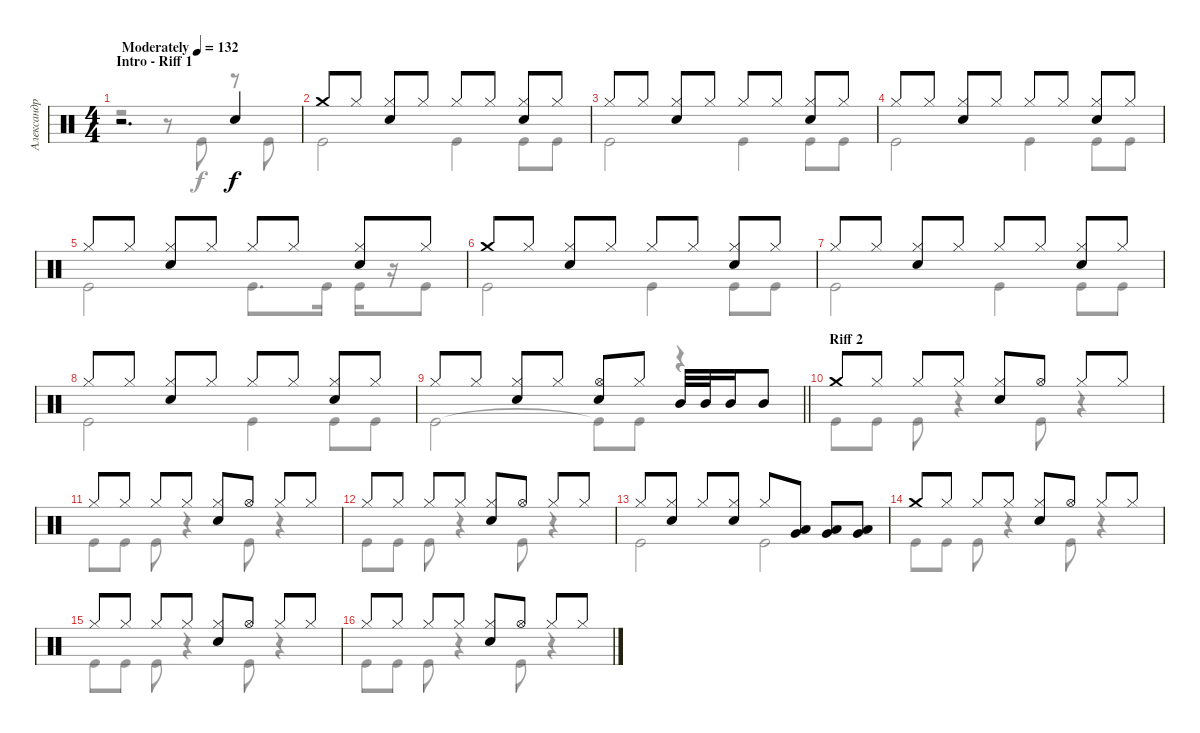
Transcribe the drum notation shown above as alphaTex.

\track ("Александр Манякин" "Александр ") {instrument percussion}
\staff {score}
\articulation defaults
\voice
\ts (4 4)
\section ("" "Intro - Riff 1")
\tempo (132 "Moderately")
\clef neutral
\ks c
r.2{d dy f} "Snare (hit) 2".4 |
"Crash medium (hit)".8 "Hi-Hat (closed)".8 ("Hi-Hat (closed)" "Snare (hit) 2").8 "Hi-Hat (closed)".8 "Hi-Hat (closed)".8 "Hi-Hat (closed)".8 ("Hi-Hat (closed)" "Snare (hit) 2").8 "Hi-Hat (closed)".8 |
"Hi-Hat (closed)".8 "Hi-Hat (closed)".8 ("Hi-Hat (closed)" "Snare (hit) 2").8 "Hi-Hat (closed)".8 "Hi-Hat (closed)".8 "Hi-Hat (closed)".8 ("Hi-Hat (closed)" "Snare (hit) 2").8 "Hi-Hat (closed)".8 |
"Hi-Hat (closed)".8 "Hi-Hat (closed)".8 ("Hi-Hat (closed)" "Snare (hit) 2").8 "Hi-Hat (closed)".8 "Hi-Hat (closed)".8 "Hi-Hat (closed)".8 ("Hi-Hat (closed)" "Snare (hit) 2").8 "Hi-Hat (closed)".8 |
"Hi-Hat (closed)".8 "Hi-Hat (closed)".8 ("Hi-Hat (closed)" "Snare (hit) 2").8 "Hi-Hat (closed)".8 "Hi-Hat (closed)".8 "Hi-Hat (closed)".8 ("Hi-Hat (closed)" "Snare (hit) 2").8 "Hi-Hat (closed)".8 |
"Crash medium (hit)".8 "Hi-Hat (closed)".8 ("Hi-Hat (closed)" "Snare (hit) 2").8 "Hi-Hat (closed)".8 "Hi-Hat (closed)".8 "Hi-Hat (closed)".8 ("Hi-Hat (closed)" "Snare (hit) 2").8 "Hi-Hat (closed)".8 |
"Hi-Hat (closed)".8 "Hi-Hat (closed)".8 ("Hi-Hat (closed)" "Snare (hit) 2").8 "Hi-Hat (closed)".8 "Hi-Hat (closed)".8 "Hi-Hat (closed)".8 ("Hi-Hat (closed)" "Snare (hit) 2").8 "Hi-Hat (closed)".8 |
"Hi-Hat (closed)".8 "Hi-Hat (closed)".8 ("Hi-Hat (closed)" "Snare (hit) 2").8 "Hi-Hat (closed)".8 "Hi-Hat (closed)".8 "Hi-Hat (closed)".8 ("Hi-Hat (closed)" "Snare (hit) 2").8 "Hi-Hat (closed)".8 |
\barLineRight lightlight "Hi-Hat (closed)".8 "Hi-Hat (closed)".8
("Hi-Hat (closed)" "Snare (hit) 2").8 "Hi-Hat (closed)".8 ("Snare (hit) 2" "Hi-Hat (open)").8 "Hi-Hat (closed)".8 "Mid Tom (hit)".32 "Mid Tom (hit)".32 "Mid Tom (hit)".16 "Mid Tom (hit)".8 |
\section ("" "Riff 2")
"Crash medium (hit)".8 "Hi-Hat (closed)".8 "Hi-Hat (closed)".8 "Hi-Hat (closed)".8 ("Hi-Hat (closed)" "Snare (hit) 2").8 "Hi-Hat (open)".8 "Hi-Hat (closed)".8 "Hi-Hat (closed)".8 |
"Hi-Hat (closed)".8 "Hi-Hat (closed)".8 "Hi-Hat (closed)".8 "Hi-Hat (closed)".8 ("Hi-Hat (closed)" "Snare (hit) 2").8 "Hi-Hat (open)".8 "Hi-Hat (closed)".8 "Hi-Hat (closed)".8 |
"Hi-Hat (closed)".8 "Hi-Hat (closed)".8 "Hi-Hat (closed)".8 "Hi-Hat (closed)".8 ("Hi-Hat (closed)" "Snare (hit) 2").8 "Hi-Hat (open)".8 "Hi-Hat (closed)".8 "Hi-Hat (closed)".8 |
"Hi-Hat (closed)".8 ("Hi-Hat (closed)" "Snare (hit) 2").8 "Hi-Hat (closed)".8 ("Hi-Hat (closed)" "Snare (hit) 2").8 "Hi-Hat (closed)".8 ("Low Tom (hit)" "Very Low Tom (hit)").8 ("Low Tom (hit)" "Very Low Tom (hit)").8 ("Low Tom (hit)" "Very Low Tom (hit)").8 |
"Crash medium (hit)".8 "Hi-Hat (closed)".8 "Hi-Hat (closed)".8 "Hi-Hat (closed)".8 ("Hi-Hat (closed)" "Snare (hit) 2").8 "Hi-Hat (open)".8 "Hi-Hat (closed)".8 "Hi-Hat (closed)".8 |
"Hi-Hat (closed)".8 "Hi-Hat (closed)".8 "Hi-Hat (closed)".8 "Hi-Hat (closed)".8 ("Hi-Hat (closed)" "Snare (hit) 2").8 "Hi-Hat (open)".8 "Hi-Hat (closed)".8 "Hi-Hat (closed)".8 |
"Hi-Hat (closed)".8 "Hi-Hat (closed)".8 "Hi-Hat (closed)".8 "Hi-Hat (closed)".8 ("Hi-Hat (closed)" "Snare (hit) 2").8 "Hi-Hat (open)".8 "Hi-Hat (closed)".8 "Hi-Hat (closed)".8
\voice
\clef neutral
\ottava regular
\simile none
\ks c
r.2{dy f} r.8 "Kick (hit)".8 r.8 "Kick (hit)".8 |
"Kick (hit)".2 "Kick (hit)".4 "Kick (hit)".8 "Kick (hit)".8 |
"Kick (hit)".2 "Kick (hit)".4 "Kick (hit)".8 "Kick (hit)".8 |
"Kick (hit)".2 "Kick (hit)".4 "Kick (hit)".8 "Kick (hit)".8 |
"Kick (hit)".2 "Kick (hit)".8{d} "Kick (hit)".16 "Kick (hit)".16 r.16 "Kick (hit)".8 |
"Kick (hit)".2 "Kick (hit)".4 "Kick (hit)".8 "Kick (hit)".8 |
"Kick (hit)".2 "Kick (hit)".4 "Kick (hit)".8 "Kick (hit)".8 |
"Kick (hit)".2 "Kick (hit)".4 "Kick (hit)".8 "Kick (hit)".8 |
\barLineRight lightlight "Kick (hit)".2 "Kick (hit)"{t}.8 "Kick (hit)".8
r.4 |
"Kick (hit)".8 "Kick (hit)".8 "Kick (hit)".8 r.4 "Kick (hit)".8 r.4 |
"Kick (hit)".8 "Kick (hit)".8 "Kick (hit)".8 r.4 "Kick (hit)".8 r.4 |
"Kick (hit)".8 "Kick (hit)".8 "Kick (hit)".8 r.4 "Kick (hit)".8 r.4 |
"Kick (hit)".2 "Kick (hit)".2 |
"Kick (hit)".8 "Kick (hit)".8 "Kick (hit)".8 r.4 "Kick (hit)".8 r.4 |
"Kick (hit)".8 "Kick (hit)".8 "Kick (hit)".8 r.4 "Kick (hit)".8 r.4 |
"Kick (hit)".8 "Kick (hit)".8 "Kick (hit)".8 r.4 "Kick (hit)".8 r.4
